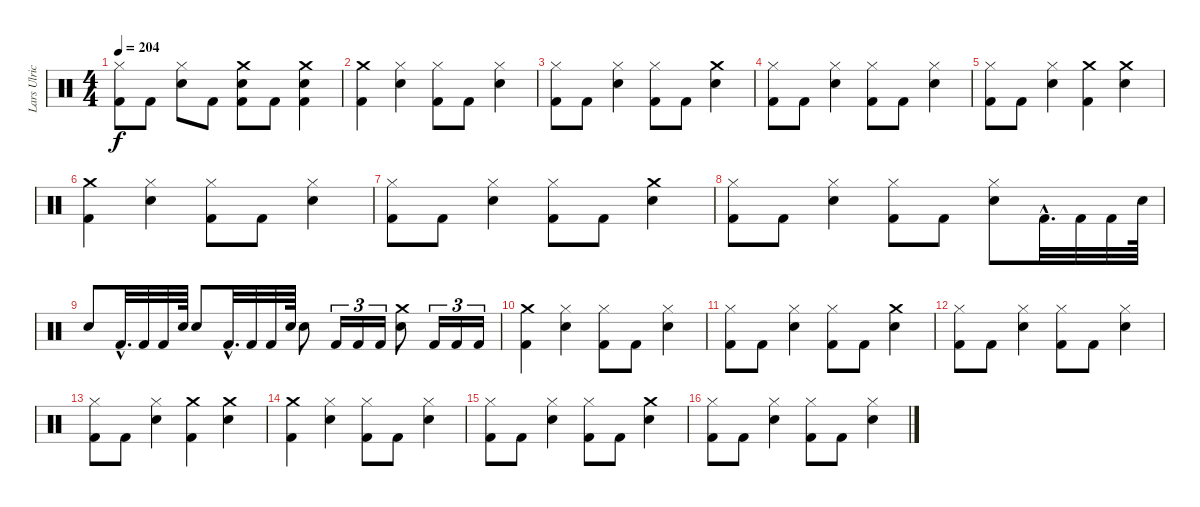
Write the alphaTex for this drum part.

\track ("Lars Ulrich (Drums)" "Lars Ulric") {instrument percussion}
\staff {score}
\articulation defaults
\ts (4 4)
\tempo 204
\clef neutral
\ks c
("Hi-Hat (closed)" "Kick (hit) 2").8{dy f} "Kick (hit) 2".8 ("Snare (hit) 2" "Hi-Hat (closed)").8 "Kick (hit) 2".8 ("Snare (hit) 2" "Crash medium (hit)" "Kick (hit) 2").8 "Kick (hit) 2".8 ("Kick (hit) 2" "Crash medium (hit)" "Snare (hit) 2").4 |
("Kick (hit) 2" "Crash medium (hit)").4 ("Hi-Hat (closed)" "Snare (hit) 2").4 ("Hi-Hat (closed)" "Kick (hit) 2").8 "Kick (hit) 2".8 ("Snare (hit) 2" "Hi-Hat (closed)").4 |
("Hi-Hat (closed)" "Kick (hit) 2").8 "Kick (hit) 2".8 ("Snare (hit) 2" "Hi-Hat (closed)").4 ("Hi-Hat (closed)" "Kick (hit) 2").8 "Kick (hit) 2".8 ("Crash medium (hit)" "Snare (hit) 2").4 |
("Hi-Hat (closed)" "Kick (hit) 2").8 "Kick (hit) 2".8 ("Snare (hit) 2" "Hi-Hat (closed)").4 ("Hi-Hat (closed)" "Kick (hit) 2").8 "Kick (hit) 2".8 ("Snare (hit) 2" "Hi-Hat (closed)").4 |
("Hi-Hat (closed)" "Kick (hit) 2").8 "Kick (hit) 2".8 ("Snare (hit) 2" "Hi-Hat (closed)").4 ("Crash medium (hit)" "Kick (hit) 2").4 ("Crash medium (hit)" "Snare (hit) 2").4 |
("Kick (hit) 2" "Crash medium (hit)").4 ("Hi-Hat (closed)" "Snare (hit) 2").4 ("Hi-Hat (closed)" "Kick (hit) 2").8 "Kick (hit) 2".8 ("Snare (hit) 2" "Hi-Hat (closed)").4 |
("Hi-Hat (closed)" "Kick (hit) 2").8 "Kick (hit) 2".8 ("Snare (hit) 2" "Hi-Hat (closed)").4 ("Hi-Hat (closed)" "Kick (hit) 2").8 "Kick (hit) 2".8 ("Crash medium (hit)" "Snare (hit) 2").4 |
("Hi-Hat (closed)" "Kick (hit) 2").8 "Kick (hit) 2".8 ("Snare (hit) 2" "Hi-Hat (closed)").4 ("Hi-Hat (closed)" "Kick (hit) 2").8 "Kick (hit) 2".8 ("Snare (hit) 2" "Hi-Hat (closed)").8 "Kick (hit) 2"{hac}.32{d} "Kick (hit) 2".32 "Kick (hit) 2".32 "Snare (hit) 2".64 |
"Snare (hit) 2".8 "Kick (hit) 2"{hac}.32{d} "Kick (hit) 2".32 "Kick (hit) 2".32 "Snare (hit) 2".64 "Snare (hit) 2".8 "Kick (hit) 2"{hac}.32{d} "Kick (hit) 2".32 "Kick (hit) 2".32 "Snare (hit) 2".64 "Snare (hit) 2".8 "Kick (hit) 2".16{tu (3 2)} "Kick (hit) 2".16{tu (3 2)} "Kick (hit) 2".16{tu (3 2)} ("Crash medium (hit)" "Snare (hit) 2").8 "Kick (hit) 2".16{tu (3 2)} "Kick (hit) 2".16{tu (3 2)} "Kick (hit) 2".16{tu (3 2)} |
("Kick (hit) 2" "Crash medium (hit)").4 ("Hi-Hat (closed)" "Snare (hit) 2").4 ("Hi-Hat (closed)" "Kick (hit) 2").8 "Kick (hit) 2".8 ("Snare (hit) 2" "Hi-Hat (closed)").4 |
("Hi-Hat (closed)" "Kick (hit) 2").8 "Kick (hit) 2".8 ("Snare (hit) 2" "Hi-Hat (closed)").4 ("Hi-Hat (closed)" "Kick (hit) 2").8 "Kick (hit) 2".8 ("Crash medium (hit)" "Snare (hit) 2").4 |
("Hi-Hat (closed)" "Kick (hit) 2").8 "Kick (hit) 2".8 ("Snare (hit) 2" "Hi-Hat (closed)").4 ("Hi-Hat (closed)" "Kick (hit) 2").8 "Kick (hit) 2".8 ("Snare (hit) 2" "Hi-Hat (closed)").4 |
("Hi-Hat (closed)" "Kick (hit) 2").8 "Kick (hit) 2".8 ("Snare (hit) 2" "Hi-Hat (closed)").4 ("Crash medium (hit)" "Kick (hit) 2").4 ("Crash medium (hit)" "Snare (hit) 2").4 |
("Kick (hit) 2" "Crash medium (hit)").4 ("Hi-Hat (closed)" "Snare (hit) 2").4 ("Hi-Hat (closed)" "Kick (hit) 2").8 "Kick (hit) 2".8 ("Snare (hit) 2" "Hi-Hat (closed)").4 |
("Hi-Hat (closed)" "Kick (hit) 2").8 "Kick (hit) 2".8 ("Snare (hit) 2" "Hi-Hat (closed)").4 ("Hi-Hat (closed)" "Kick (hit) 2").8 "Kick (hit) 2".8 ("Crash medium (hit)" "Snare (hit) 2").4 |
("Hi-Hat (closed)" "Kick (hit) 2").8 "Kick (hit) 2".8 ("Snare (hit) 2" "Hi-Hat (closed)").4 ("Hi-Hat (closed)" "Kick (hit) 2").8 "Kick (hit) 2".8 ("Snare (hit) 2" "Hi-Hat (closed)").4
